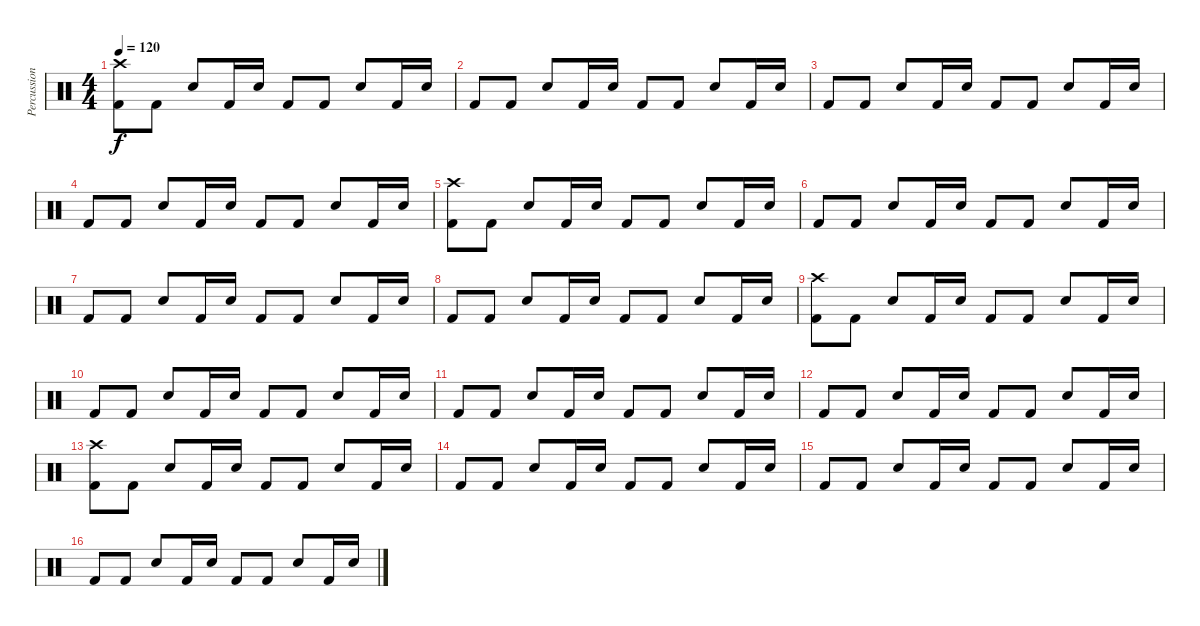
\track ("Percussion" "Percussion") {instrument percussion}
\staff {score}
\articulation defaults
\ts (4 4)
\tempo 120
\clef neutral
\ks c
("Crash high (hit)" "Kick (hit) 2").8{dy f} "Kick (hit) 2".8 "Electric Snare (hit)".8 "Kick (hit) 2".16 "Electric Snare (hit)".16 "Kick (hit) 2".8 "Kick (hit) 2".8 "Electric Snare (hit)".8 "Kick (hit) 2".16 "Electric Snare (hit)".16 |
"Kick (hit) 2".8 "Kick (hit) 2".8 "Electric Snare (hit)".8 "Kick (hit) 2".16 "Electric Snare (hit)".16 "Kick (hit) 2".8 "Kick (hit) 2".8 "Electric Snare (hit)".8 "Kick (hit) 2".16 "Electric Snare (hit)".16 |
"Kick (hit) 2".8 "Kick (hit) 2".8 "Electric Snare (hit)".8 "Kick (hit) 2".16 "Electric Snare (hit)".16 "Kick (hit) 2".8 "Kick (hit) 2".8 "Electric Snare (hit)".8 "Kick (hit) 2".16 "Electric Snare (hit)".16 |
"Kick (hit) 2".8 "Kick (hit) 2".8 "Electric Snare (hit)".8 "Kick (hit) 2".16 "Electric Snare (hit)".16 "Kick (hit) 2".8 "Kick (hit) 2".8 "Electric Snare (hit)".8 "Kick (hit) 2".16 "Electric Snare (hit)".16 |
("Crash high (hit)" "Kick (hit) 2").8 "Kick (hit) 2".8 "Electric Snare (hit)".8 "Kick (hit) 2".16 "Electric Snare (hit)".16 "Kick (hit) 2".8 "Kick (hit) 2".8 "Electric Snare (hit)".8 "Kick (hit) 2".16 "Electric Snare (hit)".16 |
"Kick (hit) 2".8 "Kick (hit) 2".8 "Electric Snare (hit)".8 "Kick (hit) 2".16 "Electric Snare (hit)".16 "Kick (hit) 2".8 "Kick (hit) 2".8 "Electric Snare (hit)".8 "Kick (hit) 2".16 "Electric Snare (hit)".16 |
"Kick (hit) 2".8 "Kick (hit) 2".8 "Electric Snare (hit)".8 "Kick (hit) 2".16 "Electric Snare (hit)".16 "Kick (hit) 2".8 "Kick (hit) 2".8 "Electric Snare (hit)".8 "Kick (hit) 2".16 "Electric Snare (hit)".16 |
"Kick (hit) 2".8 "Kick (hit) 2".8 "Electric Snare (hit)".8 "Kick (hit) 2".16 "Electric Snare (hit)".16 "Kick (hit) 2".8 "Kick (hit) 2".8 "Electric Snare (hit)".8 "Kick (hit) 2".16 "Electric Snare (hit)".16 |
("Crash high (hit)" "Kick (hit) 2").8 "Kick (hit) 2".8 "Electric Snare (hit)".8 "Kick (hit) 2".16 "Electric Snare (hit)".16 "Kick (hit) 2".8 "Kick (hit) 2".8 "Electric Snare (hit)".8 "Kick (hit) 2".16 "Electric Snare (hit)".16 |
"Kick (hit) 2".8 "Kick (hit) 2".8 "Electric Snare (hit)".8 "Kick (hit) 2".16 "Electric Snare (hit)".16 "Kick (hit) 2".8 "Kick (hit) 2".8 "Electric Snare (hit)".8 "Kick (hit) 2".16 "Electric Snare (hit)".16 |
"Kick (hit) 2".8 "Kick (hit) 2".8 "Electric Snare (hit)".8 "Kick (hit) 2".16 "Electric Snare (hit)".16 "Kick (hit) 2".8 "Kick (hit) 2".8 "Electric Snare (hit)".8 "Kick (hit) 2".16 "Electric Snare (hit)".16 |
"Kick (hit) 2".8 "Kick (hit) 2".8 "Electric Snare (hit)".8 "Kick (hit) 2".16 "Electric Snare (hit)".16 "Kick (hit) 2".8 "Kick (hit) 2".8 "Electric Snare (hit)".8 "Kick (hit) 2".16 "Electric Snare (hit)".16 |
("Crash high (hit)" "Kick (hit) 2").8 "Kick (hit) 2".8 "Electric Snare (hit)".8 "Kick (hit) 2".16 "Electric Snare (hit)".16 "Kick (hit) 2".8 "Kick (hit) 2".8 "Electric Snare (hit)".8 "Kick (hit) 2".16 "Electric Snare (hit)".16 |
"Kick (hit) 2".8 "Kick (hit) 2".8 "Electric Snare (hit)".8 "Kick (hit) 2".16 "Electric Snare (hit)".16 "Kick (hit) 2".8 "Kick (hit) 2".8 "Electric Snare (hit)".8 "Kick (hit) 2".16 "Electric Snare (hit)".16 |
"Kick (hit) 2".8 "Kick (hit) 2".8 "Electric Snare (hit)".8 "Kick (hit) 2".16 "Electric Snare (hit)".16 "Kick (hit) 2".8 "Kick (hit) 2".8 "Electric Snare (hit)".8 "Kick (hit) 2".16 "Electric Snare (hit)".16 |
"Kick (hit) 2".8 "Kick (hit) 2".8 "Electric Snare (hit)".8 "Kick (hit) 2".16 "Electric Snare (hit)".16 "Kick (hit) 2".8 "Kick (hit) 2".8 "Electric Snare (hit)".8 "Kick (hit) 2".16 "Electric Snare (hit)".16
